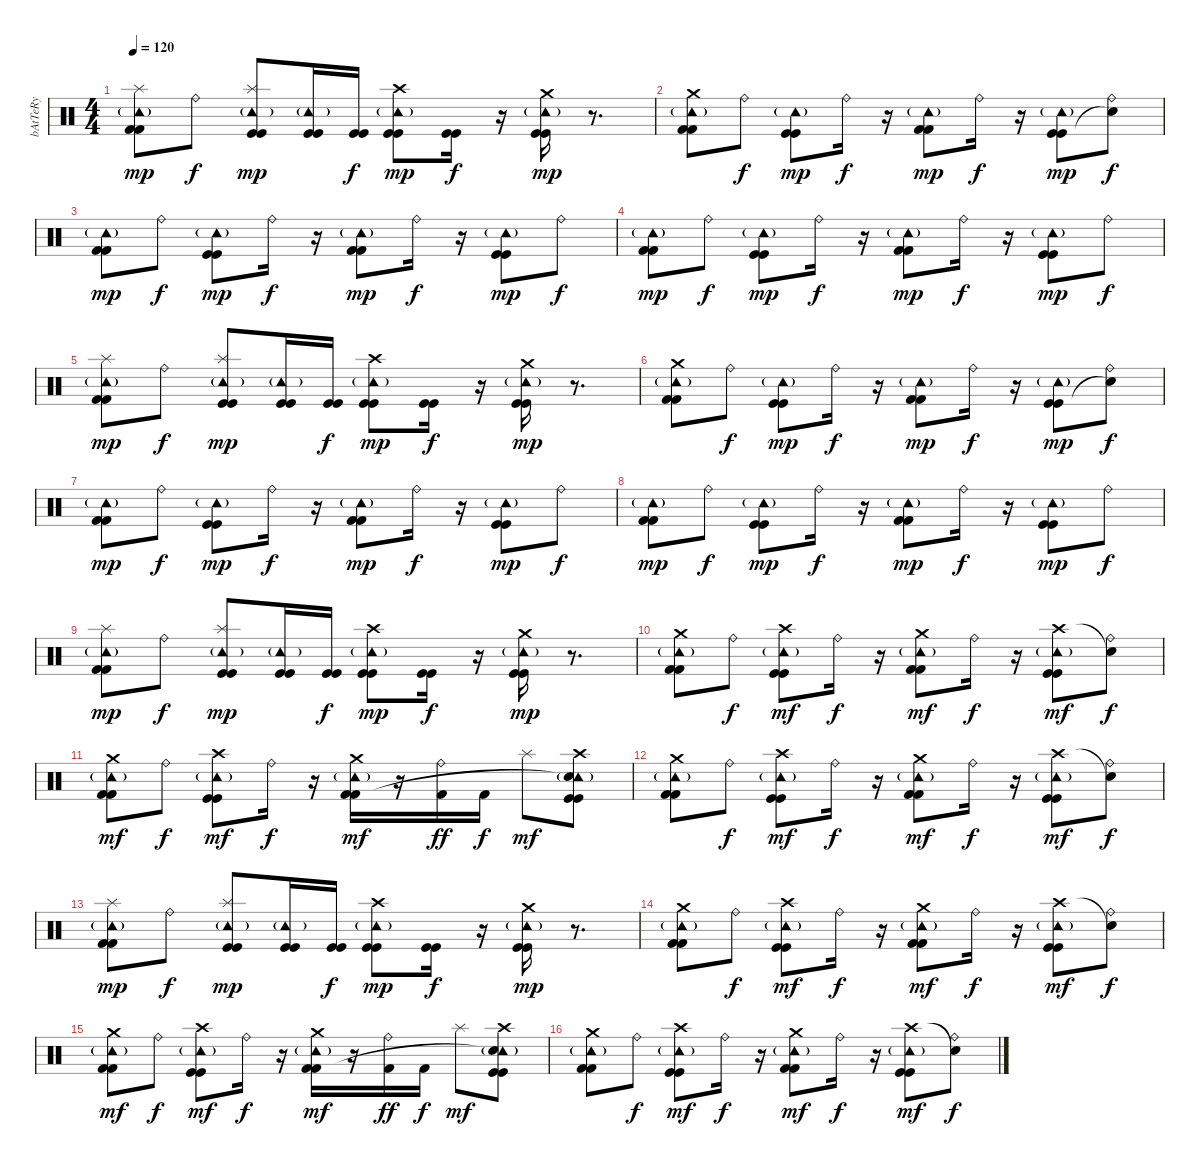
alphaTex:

\track ("bAtTeRy" "bAtTeRy") {instrument percussion}
\staff {score}
\articulation defaults
\ts (4 4)
\tempo 120
\clef neutral
\ks c
("Tambourine (hit)"{g} "Splash (hit)" "Kick (hit) 2" "Kick (hit) 2").8{dy mp} "Ride (bell)".8{dy f} ("Tambourine (hit)"{g} "Splash (hit)" "Kick (hit)" "Kick (hit)").8{dy mp} ("Tambourine (hit)"{g} "Kick (hit)" "Kick (hit)").16 ("Kick (hit)" "Kick (hit)").16{dy f} ("Tambourine (hit)"{g} "Crash high (hit)" "Kick (hit)" "Kick (hit)").8{dy mp} ("Kick (hit)" "Kick (hit)").16{dy f} r.16 ("Tambourine (hit)"{g} "Crash medium (hit)" "Kick (hit)" "Kick (hit)").16{dy mp} r.8{d} |
("Tambourine (hit)"{g} "Crash medium (hit)" "Kick (hit) 2" "Kick (hit) 2").8 "Ride (bell)".8{dy f} ("Tambourine (hit)"{g} "Kick (hit)" "Kick (hit)").8{dy mp} "Ride (bell)".16{dy f} r.16 ("Tambourine (hit)"{g} "Kick (hit) 2" "Kick (hit) 2").8{dy mp} "Ride (bell)".16{dy f} r.16 ("Tambourine (hit)"{g} "Kick (hit)" "Kick (hit)").8{dy mp} ("Ride (bell)" "Snare (hit)"{t}).8{dy f} |
("Tambourine (hit)"{g} "Kick (hit) 2" "Kick (hit) 2").8{dy mp} "Ride (bell)".8{dy f} ("Tambourine (hit)"{g} "Kick (hit)" "Kick (hit)").8{dy mp} "Ride (bell)".16{dy f} r.16 ("Tambourine (hit)"{g} "Kick (hit) 2" "Kick (hit) 2").8{dy mp} "Ride (bell)".16{dy f} r.16 ("Tambourine (hit)"{g} "Kick (hit)" "Kick (hit)").8{dy mp} "Ride (bell)".8{dy f} |
("Tambourine (hit)"{g} "Kick (hit) 2" "Kick (hit) 2").8{dy mp} "Ride (bell)".8{dy f} ("Tambourine (hit)"{g} "Kick (hit)" "Kick (hit)").8{dy mp} "Ride (bell)".16{dy f} r.16 ("Tambourine (hit)"{g} "Kick (hit) 2" "Kick (hit) 2").8{dy mp} "Ride (bell)".16{dy f} r.16 ("Tambourine (hit)"{g} "Kick (hit)" "Kick (hit)").8{dy mp} "Ride (bell)".8{dy f} |
("Tambourine (hit)"{g} "Splash (hit)" "Kick (hit) 2" "Kick (hit) 2").8{dy mp} "Ride (bell)".8{dy f} ("Tambourine (hit)"{g} "Splash (hit)" "Kick (hit)" "Kick (hit)").8{dy mp} ("Tambourine (hit)"{g} "Kick (hit)" "Kick (hit)").16 ("Kick (hit)" "Kick (hit)").16{dy f} ("Tambourine (hit)"{g} "Crash high (hit)" "Kick (hit)" "Kick (hit)").8{dy mp} ("Kick (hit)" "Kick (hit)").16{dy f} r.16 ("Tambourine (hit)"{g} "Crash medium (hit)" "Kick (hit)" "Kick (hit)").16{dy mp} r.8{d} |
("Tambourine (hit)"{g} "Crash medium (hit)" "Kick (hit) 2" "Kick (hit) 2").8 "Ride (bell)".8{dy f} ("Tambourine (hit)"{g} "Kick (hit)" "Kick (hit)").8{dy mp} "Ride (bell)".16{dy f} r.16 ("Tambourine (hit)"{g} "Kick (hit) 2" "Kick (hit) 2").8{dy mp} "Ride (bell)".16{dy f} r.16 ("Tambourine (hit)"{g} "Kick (hit)" "Kick (hit)").8{dy mp} ("Ride (bell)" "Snare (hit)"{t}).8{dy f} |
("Tambourine (hit)"{g} "Kick (hit) 2" "Kick (hit) 2").8{dy mp} "Ride (bell)".8{dy f} ("Tambourine (hit)"{g} "Kick (hit)" "Kick (hit)").8{dy mp} "Ride (bell)".16{dy f} r.16 ("Tambourine (hit)"{g} "Kick (hit) 2" "Kick (hit) 2").8{dy mp} "Ride (bell)".16{dy f} r.16 ("Tambourine (hit)"{g} "Kick (hit)" "Kick (hit)").8{dy mp} "Ride (bell)".8{dy f} |
("Tambourine (hit)"{g} "Kick (hit) 2" "Kick (hit) 2").8{dy mp} "Ride (bell)".8{dy f} ("Tambourine (hit)"{g} "Kick (hit)" "Kick (hit)").8{dy mp} "Ride (bell)".16{dy f} r.16 ("Tambourine (hit)"{g} "Kick (hit) 2" "Kick (hit) 2").8{dy mp} "Ride (bell)".16{dy f} r.16 ("Tambourine (hit)"{g} "Kick (hit)" "Kick (hit)").8{dy mp} "Ride (bell)".8{dy f} |
("Tambourine (hit)"{g} "Splash (hit)" "Kick (hit) 2" "Kick (hit) 2").8{dy mp} "Ride (bell)".8{dy f} ("Tambourine (hit)"{g} "Splash (hit)" "Kick (hit)" "Kick (hit)").8{dy mp} ("Tambourine (hit)"{g} "Kick (hit)" "Kick (hit)").16 ("Kick (hit)" "Kick (hit)").16{dy f} ("Tambourine (hit)"{g} "Crash high (hit)" "Kick (hit)" "Kick (hit)").8{dy mp} ("Kick (hit)" "Kick (hit)").16{dy f} r.16 ("Tambourine (hit)"{g} "Crash medium (hit)" "Kick (hit)" "Kick (hit)").16{dy mp} r.8{d} |
("Tambourine (hit)"{g} "Crash medium (hit)" "Kick (hit) 2" "Kick (hit) 2").8 "Ride (bell)".8{dy f} ("Tambourine (hit)"{g} "Crash high (hit)" "Kick (hit)" "Kick (hit)").8{dy mf} "Ride (bell)".16{dy f} r.16 ("Tambourine (hit)"{g} "Crash medium (hit)" "Kick (hit) 2" "Kick (hit) 2").8{dy mf} "Ride (bell)".16{dy f} r.16 ("Tambourine (hit)"{g} "Crash high (hit)" "Kick (hit)" "Kick (hit)").8{dy mf} ("Ride (bell)" "Snare (hit)"{t}).8{dy f} |
("Tambourine (hit)"{g} "Crash medium (hit)" "Kick (hit) 2" "Kick (hit) 2").8{dy mf} "Ride (bell)".8{dy f} ("Tambourine (hit)"{g} "Crash high (hit)" "Kick (hit)" "Kick (hit)").8{dy mf} "Ride (bell)".16{dy f} r.16 ("Tambourine (hit)"{g} "Crash medium (hit)" "Kick (hit) 2" "Kick (hit) 2").16{dy mf} r.16 ("Ride (bell)" "Kick (hit) 2").16{dy ff} "Kick (hit) 2".16{dy f} "Splash (hit)".8{dy mf} ("Tambourine (hit)"{g} "Crash high (hit)" "Snare (hit)"{t} "Kick (hit)" "Kick (hit)").8 |
("Tambourine (hit)"{g} "Crash medium (hit)" "Kick (hit) 2" "Kick (hit) 2").8 "Ride (bell)".8{dy f} ("Tambourine (hit)"{g} "Crash high (hit)" "Kick (hit)" "Kick (hit)").8{dy mf} "Ride (bell)".16{dy f} r.16 ("Tambourine (hit)"{g} "Crash medium (hit)" "Kick (hit) 2" "Kick (hit) 2").8{dy mf} "Ride (bell)".16{dy f} r.16 ("Tambourine (hit)"{g} "Crash high (hit)" "Kick (hit)" "Kick (hit)").8{dy mf} ("Ride (bell)" "Snare (hit)"{t}).8{dy f} |
("Tambourine (hit)"{g} "Splash (hit)" "Kick (hit) 2" "Kick (hit) 2").8{dy mp} "Ride (bell)".8{dy f} ("Tambourine (hit)"{g} "Splash (hit)" "Kick (hit)" "Kick (hit)").8{dy mp} ("Tambourine (hit)"{g} "Kick (hit)" "Kick (hit)").16 ("Kick (hit)" "Kick (hit)").16{dy f} ("Tambourine (hit)"{g} "Crash high (hit)" "Kick (hit)" "Kick (hit)").8{dy mp} ("Kick (hit)" "Kick (hit)").16{dy f} r.16 ("Tambourine (hit)"{g} "Crash medium (hit)" "Kick (hit)" "Kick (hit)").16{dy mp} r.8{d} |
("Tambourine (hit)"{g} "Crash medium (hit)" "Kick (hit) 2" "Kick (hit) 2").8 "Ride (bell)".8{dy f} ("Tambourine (hit)"{g} "Crash high (hit)" "Kick (hit)" "Kick (hit)").8{dy mf} "Ride (bell)".16{dy f} r.16 ("Tambourine (hit)"{g} "Crash medium (hit)" "Kick (hit) 2" "Kick (hit) 2").8{dy mf} "Ride (bell)".16{dy f} r.16 ("Tambourine (hit)"{g} "Crash high (hit)" "Kick (hit)" "Kick (hit)").8{dy mf} ("Ride (bell)" "Snare (hit)"{t}).8{dy f} |
("Tambourine (hit)"{g} "Crash medium (hit)" "Kick (hit) 2" "Kick (hit) 2").8{dy mf} "Ride (bell)".8{dy f} ("Tambourine (hit)"{g} "Crash high (hit)" "Kick (hit)" "Kick (hit)").8{dy mf} "Ride (bell)".16{dy f} r.16 ("Tambourine (hit)"{g} "Crash medium (hit)" "Kick (hit) 2" "Kick (hit) 2").16{dy mf} r.16 ("Ride (bell)" "Kick (hit) 2").16{dy ff} "Kick (hit) 2".16{dy f} "Splash (hit)".8{dy mf} ("Tambourine (hit)"{g} "Crash high (hit)" "Snare (hit)"{t} "Kick (hit)" "Kick (hit)").8 |
("Tambourine (hit)"{g} "Crash medium (hit)" "Kick (hit) 2" "Kick (hit) 2").8 "Ride (bell)".8{dy f} ("Tambourine (hit)"{g} "Crash high (hit)" "Kick (hit)" "Kick (hit)").8{dy mf} "Ride (bell)".16{dy f} r.16 ("Tambourine (hit)"{g} "Crash medium (hit)" "Kick (hit) 2" "Kick (hit) 2").8{dy mf} "Ride (bell)".16{dy f} r.16 ("Tambourine (hit)"{g} "Crash high (hit)" "Kick (hit)" "Kick (hit)").8{dy mf} ("Ride (bell)" "Snare (hit)"{t}).8{dy f}
